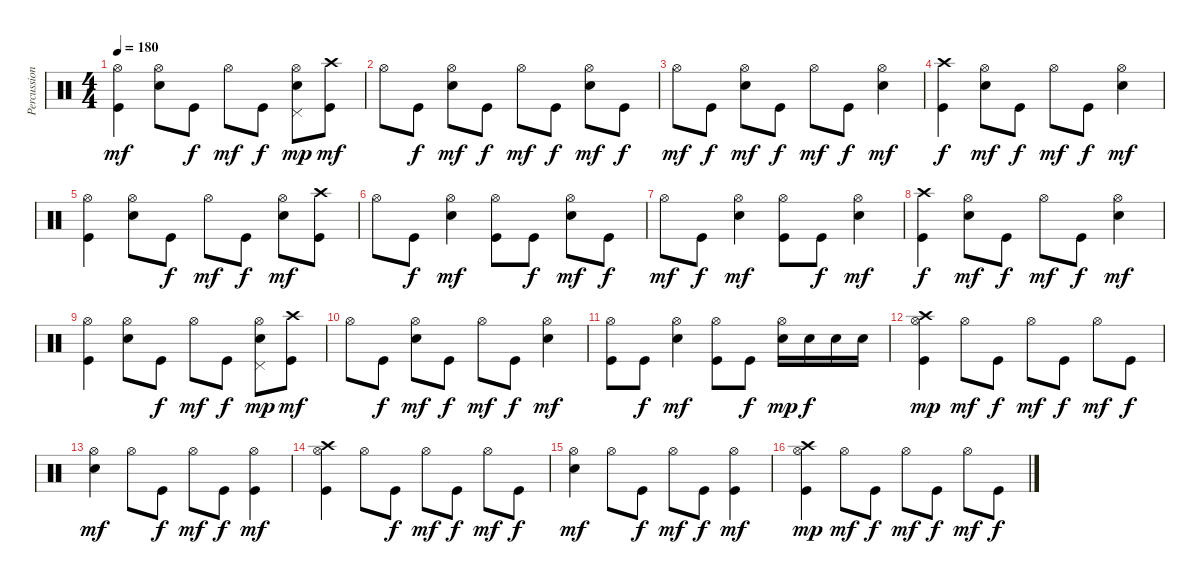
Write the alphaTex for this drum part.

\track ("Percussions" "Percussion") {instrument percussion}
\staff {score}
\articulation defaults
\ts (4 4)
\tempo 180
\clef neutral
\ks c
("Kick (hit)" "Hi-Hat (open)").4{dy mf} ("Electric Snare (hit)" "Hi-Hat (open)").8 "Kick (hit)".8{dy f} "Hi-Hat (open)".8{dy mf} "Kick (hit)".8{dy f} ("Electric Snare (hit)" "Hi-Hat (open)" "Pedal Hi-Hat (hit)").8{dy mp} ("Kick (hit)" "Crash high (hit)").8{dy mf} |
"Hi-Hat (open)".8 "Kick (hit)".8{dy f} ("Electric Snare (hit)" "Hi-Hat (open)").8{dy mf} "Kick (hit)".8{dy f} "Hi-Hat (open)".8{dy mf} "Kick (hit)".8{dy f} ("Electric Snare (hit)" "Hi-Hat (open)").8{dy mf} "Kick (hit)".8{dy f} |
"Hi-Hat (open)".8{dy mf} "Kick (hit)".8{dy f} ("Electric Snare (hit)" "Hi-Hat (open)").8{dy mf} "Kick (hit)".8{dy f} "Hi-Hat (open)".8{dy mf} "Kick (hit)".8{dy f} ("Electric Snare (hit)" "Hi-Hat (open)").4{dy mf} |
("Kick (hit)" "Crash high (hit)").4{dy f} ("Electric Snare (hit)" "Hi-Hat (open)").8{dy mf} "Kick (hit)".8{dy f} "Hi-Hat (open)".8{dy mf} "Kick (hit)".8{dy f} ("Electric Snare (hit)" "Hi-Hat (open)").4{dy mf} |
("Kick (hit)" "Hi-Hat (open)").4 ("Electric Snare (hit)" "Hi-Hat (open)").8 "Kick (hit)".8{dy f} "Hi-Hat (open)".8{dy mf} "Kick (hit)".8{dy f} ("Electric Snare (hit)" "Hi-Hat (open)").8{dy mf} ("Kick (hit)" "Crash high (hit)").8 |
"Hi-Hat (open)".8 "Kick (hit)".8{dy f} ("Electric Snare (hit)" "Hi-Hat (open)").4{dy mf} ("Kick (hit)" "Hi-Hat (open)").8 "Kick (hit)".8{dy f} ("Electric Snare (hit)" "Hi-Hat (open)").8{dy mf} "Kick (hit)".8{dy f} |
"Hi-Hat (open)".8{dy mf} "Kick (hit)".8{dy f} ("Electric Snare (hit)" "Hi-Hat (open)").4{dy mf} ("Kick (hit)" "Hi-Hat (open)").8 "Kick (hit)".8{dy f} ("Electric Snare (hit)" "Hi-Hat (open)").4{dy mf} |
("Kick (hit)" "Crash high (hit)").4{dy f} ("Electric Snare (hit)" "Hi-Hat (open)").8{dy mf} "Kick (hit)".8{dy f} "Hi-Hat (open)".8{dy mf} "Kick (hit)".8{dy f} ("Electric Snare (hit)" "Hi-Hat (open)").4{dy mf} |
("Kick (hit)" "Hi-Hat (open)").4 ("Electric Snare (hit)" "Hi-Hat (open)").8 "Kick (hit)".8{dy f} "Hi-Hat (open)".8{dy mf} "Kick (hit)".8{dy f} ("Electric Snare (hit)" "Hi-Hat (open)" "Pedal Hi-Hat (hit)").8{dy mp} ("Kick (hit)" "Crash high (hit)").8{dy mf} |
"Hi-Hat (open)".8 "Kick (hit)".8{dy f} ("Electric Snare (hit)" "Hi-Hat (open)").8{dy mf} "Kick (hit)".8{dy f} "Hi-Hat (open)".8{dy mf} "Kick (hit)".8{dy f} ("Electric Snare (hit)" "Hi-Hat (open)").4{dy mf} |
("Kick (hit)" "Hi-Hat (open)").8 "Kick (hit)".8{dy f} ("Electric Snare (hit)" "Hi-Hat (open)").4{dy mf} ("Kick (hit)" "Hi-Hat (open)").8 "Kick (hit)".8{dy f} ("Electric Snare (hit)" "Hi-Hat (open)").16{dy mp} "Electric Snare (hit)".16{dy f} "Electric Snare (hit)".16 "Electric Snare (hit)".16 |
("Kick (hit)" "Hi-Hat (open)" "Crash high (hit)").4{dy mp} "Hi-Hat (open)".8{dy mf} "Kick (hit)".8{dy f} "Hi-Hat (open)".8{dy mf} "Kick (hit)".8{dy f} "Hi-Hat (open)".8{dy mf} "Kick (hit)".8{dy f} |
("Electric Snare (hit)" "Hi-Hat (open)").4{dy mf} "Hi-Hat (open)".8 "Kick (hit)".8{dy f} "Hi-Hat (open)".8{dy mf} "Kick (hit)".8{dy f} ("Kick (hit)" "Hi-Hat (open)").4{dy mf} |
("Kick (hit)" "Hi-Hat (open)" "Crash high (hit)").4 "Hi-Hat (open)".8 "Kick (hit)".8{dy f} "Hi-Hat (open)".8{dy mf} "Kick (hit)".8{dy f} "Hi-Hat (open)".8{dy mf} "Kick (hit)".8{dy f} |
("Electric Snare (hit)" "Hi-Hat (open)").4{dy mf} "Hi-Hat (open)".8 "Kick (hit)".8{dy f} "Hi-Hat (open)".8{dy mf} "Kick (hit)".8{dy f} ("Kick (hit)" "Hi-Hat (open)").4{dy mf} |
("Kick (hit)" "Hi-Hat (open)" "Crash high (hit)").4{dy mp} "Hi-Hat (open)".8{dy mf} "Kick (hit)".8{dy f} "Hi-Hat (open)".8{dy mf} "Kick (hit)".8{dy f} "Hi-Hat (open)".8{dy mf} "Kick (hit)".8{dy f}
